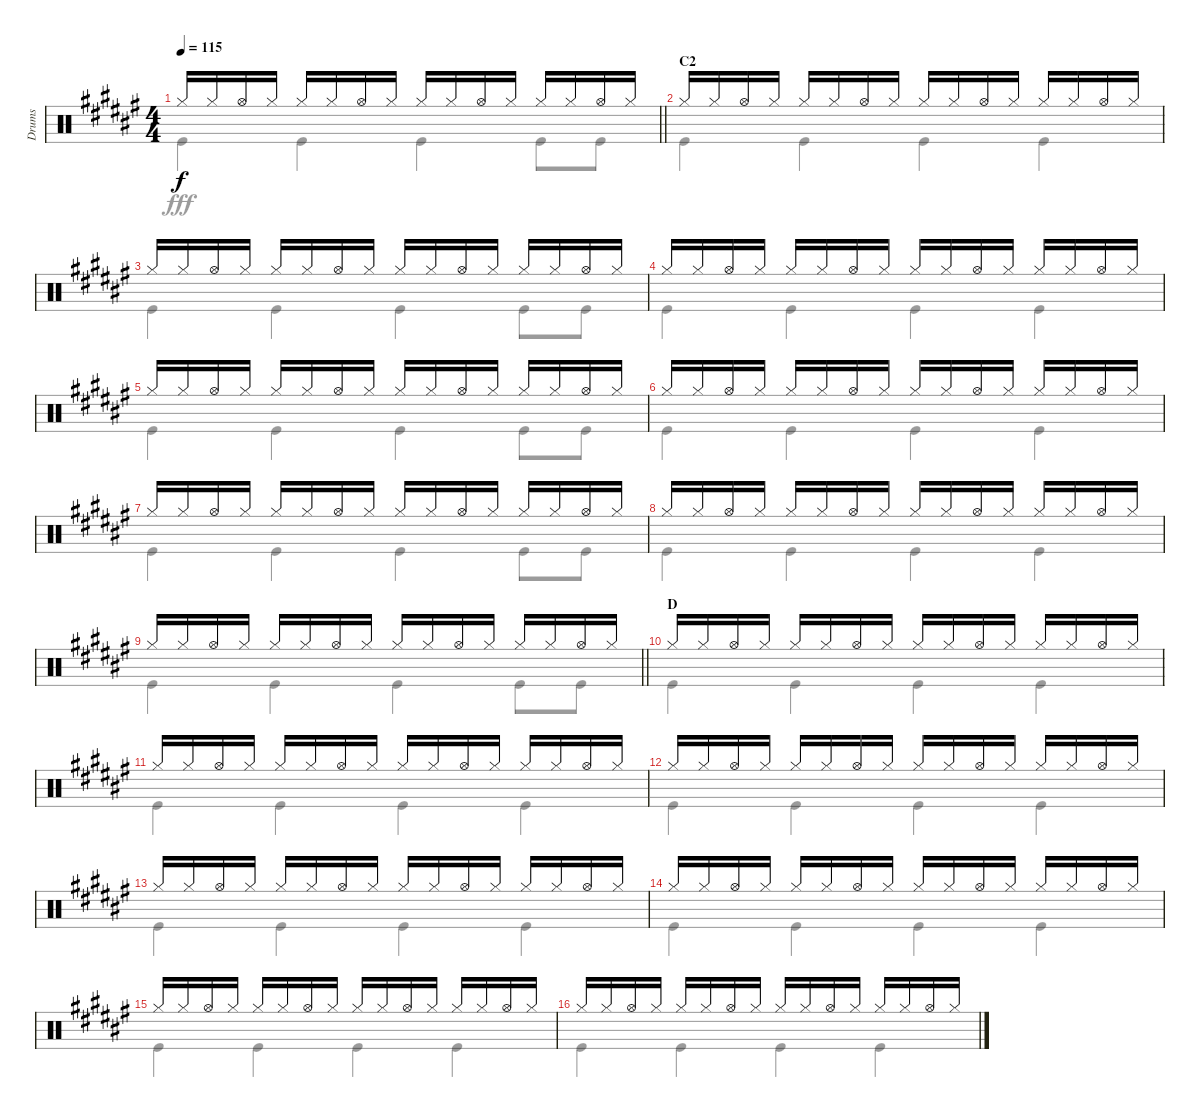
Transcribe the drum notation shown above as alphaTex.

\track ("Drums" "Drums") {instrument percussion}
\staff {score}
\articulation defaults
\voice
\ts (4 4)
\tempo 115
\clef neutral
\barLineRight lightlight
\ks f# "Hi-Hat (closed)".16{dy f} "Hi-Hat (closed)".16 "Hi-Hat (open)".16 "Hi-Hat (closed)".16 "Hi-Hat (closed)".16 "Hi-Hat (closed)".16 "Hi-Hat (open)".16 "Hi-Hat (closed)".16 "Hi-Hat (closed)".16 "Hi-Hat (closed)".16 "Hi-Hat (open)".16 "Hi-Hat (closed)".16 "Hi-Hat (closed)".16 "Hi-Hat (closed)".16 "Hi-Hat (open)".16 "Hi-Hat (closed)".16
|
\section ("" "C2")
"Hi-Hat (closed)".16 "Hi-Hat (closed)".16 "Hi-Hat (open)".16 "Hi-Hat (closed)".16 "Hi-Hat (closed)".16 "Hi-Hat (closed)".16 "Hi-Hat (open)".16 "Hi-Hat (closed)".16 "Hi-Hat (closed)".16 "Hi-Hat (closed)".16 "Hi-Hat (open)".16 "Hi-Hat (closed)".16 "Hi-Hat (closed)".16 "Hi-Hat (closed)".16 "Hi-Hat (open)".16 "Hi-Hat (closed)".16 |
"Hi-Hat (closed)".16 "Hi-Hat (closed)".16 "Hi-Hat (open)".16 "Hi-Hat (closed)".16 "Hi-Hat (closed)".16 "Hi-Hat (closed)".16 "Hi-Hat (open)".16 "Hi-Hat (closed)".16 "Hi-Hat (closed)".16 "Hi-Hat (closed)".16 "Hi-Hat (open)".16 "Hi-Hat (closed)".16 "Hi-Hat (closed)".16 "Hi-Hat (closed)".16 "Hi-Hat (open)".16 "Hi-Hat (closed)".16 |
"Hi-Hat (closed)".16 "Hi-Hat (closed)".16 "Hi-Hat (open)".16 "Hi-Hat (closed)".16 "Hi-Hat (closed)".16 "Hi-Hat (closed)".16 "Hi-Hat (open)".16 "Hi-Hat (closed)".16 "Hi-Hat (closed)".16 "Hi-Hat (closed)".16 "Hi-Hat (open)".16 "Hi-Hat (closed)".16 "Hi-Hat (closed)".16 "Hi-Hat (closed)".16 "Hi-Hat (open)".16 "Hi-Hat (closed)".16 |
"Hi-Hat (closed)".16 "Hi-Hat (closed)".16 "Hi-Hat (open)".16 "Hi-Hat (closed)".16 "Hi-Hat (closed)".16 "Hi-Hat (closed)".16 "Hi-Hat (open)".16 "Hi-Hat (closed)".16 "Hi-Hat (closed)".16 "Hi-Hat (closed)".16 "Hi-Hat (open)".16 "Hi-Hat (closed)".16 "Hi-Hat (closed)".16 "Hi-Hat (closed)".16 "Hi-Hat (open)".16 "Hi-Hat (closed)".16 |
"Hi-Hat (closed)".16 "Hi-Hat (closed)".16 "Hi-Hat (open)".16 "Hi-Hat (closed)".16 "Hi-Hat (closed)".16 "Hi-Hat (closed)".16 "Hi-Hat (open)".16 "Hi-Hat (closed)".16 "Hi-Hat (closed)".16 "Hi-Hat (closed)".16 "Hi-Hat (open)".16 "Hi-Hat (closed)".16 "Hi-Hat (closed)".16 "Hi-Hat (closed)".16 "Hi-Hat (open)".16 "Hi-Hat (closed)".16 |
"Hi-Hat (closed)".16 "Hi-Hat (closed)".16 "Hi-Hat (open)".16 "Hi-Hat (closed)".16 "Hi-Hat (closed)".16 "Hi-Hat (closed)".16 "Hi-Hat (open)".16 "Hi-Hat (closed)".16 "Hi-Hat (closed)".16 "Hi-Hat (closed)".16 "Hi-Hat (open)".16 "Hi-Hat (closed)".16 "Hi-Hat (closed)".16 "Hi-Hat (closed)".16 "Hi-Hat (open)".16 "Hi-Hat (closed)".16 |
"Hi-Hat (closed)".16 "Hi-Hat (closed)".16 "Hi-Hat (open)".16 "Hi-Hat (closed)".16 "Hi-Hat (closed)".16 "Hi-Hat (closed)".16 "Hi-Hat (open)".16 "Hi-Hat (closed)".16 "Hi-Hat (closed)".16 "Hi-Hat (closed)".16 "Hi-Hat (open)".16 "Hi-Hat (closed)".16 "Hi-Hat (closed)".16 "Hi-Hat (closed)".16 "Hi-Hat (open)".16 "Hi-Hat (closed)".16 |
\barLineRight lightlight "Hi-Hat (closed)".16 "Hi-Hat (closed)".16 "Hi-Hat (open)".16 "Hi-Hat (closed)".16 "Hi-Hat (closed)".16 "Hi-Hat (closed)".16 "Hi-Hat (open)".16 "Hi-Hat (closed)".16 "Hi-Hat (closed)".16 "Hi-Hat (closed)".16 "Hi-Hat (open)".16 "Hi-Hat (closed)".16 "Hi-Hat (closed)".16 "Hi-Hat (closed)".16 "Hi-Hat (open)".16 "Hi-Hat (closed)".16
|
\section ("" "D")
"Hi-Hat (closed)".16 "Hi-Hat (closed)".16 "Hi-Hat (open)".16 "Hi-Hat (closed)".16 "Hi-Hat (closed)".16 "Hi-Hat (closed)".16 "Hi-Hat (open)".16 "Hi-Hat (closed)".16 "Hi-Hat (closed)".16 "Hi-Hat (closed)".16 "Hi-Hat (open)".16 "Hi-Hat (closed)".16 "Hi-Hat (closed)".16 "Hi-Hat (closed)".16 "Hi-Hat (open)".16 "Hi-Hat (closed)".16 |
"Hi-Hat (closed)".16 "Hi-Hat (closed)".16 "Hi-Hat (open)".16 "Hi-Hat (closed)".16 "Hi-Hat (closed)".16 "Hi-Hat (closed)".16 "Hi-Hat (open)".16 "Hi-Hat (closed)".16 "Hi-Hat (closed)".16 "Hi-Hat (closed)".16 "Hi-Hat (open)".16 "Hi-Hat (closed)".16 "Hi-Hat (closed)".16 "Hi-Hat (closed)".16 "Hi-Hat (open)".16 "Hi-Hat (closed)".16 |
"Hi-Hat (closed)".16 "Hi-Hat (closed)".16 "Hi-Hat (open)".16 "Hi-Hat (closed)".16 "Hi-Hat (closed)".16 "Hi-Hat (closed)".16 "Hi-Hat (open)".16 "Hi-Hat (closed)".16 "Hi-Hat (closed)".16 "Hi-Hat (closed)".16 "Hi-Hat (open)".16 "Hi-Hat (closed)".16 "Hi-Hat (closed)".16 "Hi-Hat (closed)".16 "Hi-Hat (open)".16 "Hi-Hat (closed)".16 |
"Hi-Hat (closed)".16 "Hi-Hat (closed)".16 "Hi-Hat (open)".16 "Hi-Hat (closed)".16 "Hi-Hat (closed)".16 "Hi-Hat (closed)".16 "Hi-Hat (open)".16 "Hi-Hat (closed)".16 "Hi-Hat (closed)".16 "Hi-Hat (closed)".16 "Hi-Hat (open)".16 "Hi-Hat (closed)".16 "Hi-Hat (closed)".16 "Hi-Hat (closed)".16 "Hi-Hat (open)".16 "Hi-Hat (closed)".16 |
"Hi-Hat (closed)".16 "Hi-Hat (closed)".16 "Hi-Hat (open)".16 "Hi-Hat (closed)".16 "Hi-Hat (closed)".16 "Hi-Hat (closed)".16 "Hi-Hat (open)".16 "Hi-Hat (closed)".16 "Hi-Hat (closed)".16 "Hi-Hat (closed)".16 "Hi-Hat (open)".16 "Hi-Hat (closed)".16 "Hi-Hat (closed)".16 "Hi-Hat (closed)".16 "Hi-Hat (open)".16 "Hi-Hat (closed)".16 |
"Hi-Hat (closed)".16 "Hi-Hat (closed)".16 "Hi-Hat (open)".16 "Hi-Hat (closed)".16 "Hi-Hat (closed)".16 "Hi-Hat (closed)".16 "Hi-Hat (open)".16 "Hi-Hat (closed)".16 "Hi-Hat (closed)".16 "Hi-Hat (closed)".16 "Hi-Hat (open)".16 "Hi-Hat (closed)".16 "Hi-Hat (closed)".16 "Hi-Hat (closed)".16 "Hi-Hat (open)".16 "Hi-Hat (closed)".16 |
"Hi-Hat (closed)".16 "Hi-Hat (closed)".16 "Hi-Hat (open)".16 "Hi-Hat (closed)".16 "Hi-Hat (closed)".16 "Hi-Hat (closed)".16 "Hi-Hat (open)".16 "Hi-Hat (closed)".16 "Hi-Hat (closed)".16 "Hi-Hat (closed)".16 "Hi-Hat (open)".16 "Hi-Hat (closed)".16 "Hi-Hat (closed)".16 "Hi-Hat (closed)".16 "Hi-Hat (open)".16 "Hi-Hat (closed)".16
\voice
\clef neutral
\ottava regular
\simile none
\barLineRight lightlight
\ks f# "Kick (hit)".4{dy fff} "Kick (hit)".4 "Kick (hit)".4 "Kick (hit)".8 "Kick (hit)".8
|
"Kick (hit)".4 "Kick (hit)".4 "Kick (hit)".4 "Kick (hit)".4 |
"Kick (hit)".4 "Kick (hit)".4 "Kick (hit)".4 "Kick (hit)".8 "Kick (hit)".8 |
"Kick (hit)".4 "Kick (hit)".4 "Kick (hit)".4 "Kick (hit)".4 |
"Kick (hit)".4 "Kick (hit)".4 "Kick (hit)".4 "Kick (hit)".8 "Kick (hit)".8 |
"Kick (hit)".4 "Kick (hit)".4 "Kick (hit)".4 "Kick (hit)".4 |
"Kick (hit)".4 "Kick (hit)".4 "Kick (hit)".4 "Kick (hit)".8 "Kick (hit)".8 |
"Kick (hit)".4 "Kick (hit)".4 "Kick (hit)".4 "Kick (hit)".4 |
\barLineRight lightlight "Kick (hit)".4 "Kick (hit)".4 "Kick (hit)".4 "Kick (hit)".8 "Kick (hit)".8
|
"Kick (hit)".4 "Kick (hit)".4 "Kick (hit)".4 "Kick (hit)".4 |
"Kick (hit)".4 "Kick (hit)".4 "Kick (hit)".4 "Kick (hit)".4 |
"Kick (hit)".4 "Kick (hit)".4 "Kick (hit)".4 "Kick (hit)".4 |
"Kick (hit)".4 "Kick (hit)".4 "Kick (hit)".4 "Kick (hit)".4 |
"Kick (hit)".4 "Kick (hit)".4 "Kick (hit)".4 "Kick (hit)".4 |
"Kick (hit)".4 "Kick (hit)".4 "Kick (hit)".4 "Kick (hit)".4 |
"Kick (hit)".4 "Kick (hit)".4 "Kick (hit)".4 "Kick (hit)".4
